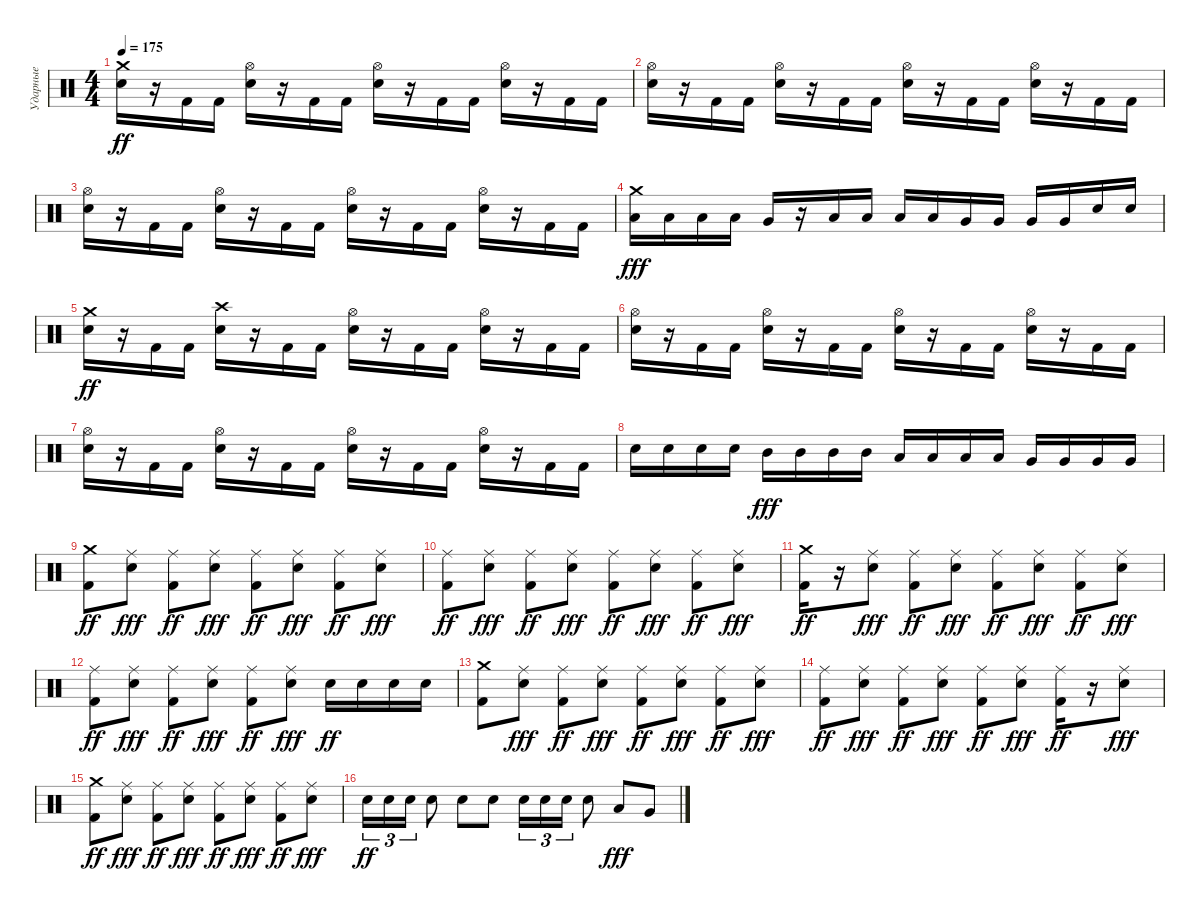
\track ("Ударные" "Ударные") {instrument percussion}
\staff {score}
\articulation defaults
\ts (4 4)
\tempo 175
\clef neutral
\ks c
("Electric Snare (hit)" "Crash medium (hit)").16{dy ff} r.16 "Kick (hit) 2".16 "Kick (hit) 2".16 ("Electric Snare (hit)" "Hi-Hat (open)").16 r.16 "Kick (hit) 2".16 "Kick (hit) 2".16 ("Electric Snare (hit)" "Hi-Hat (open)").16 r.16 "Kick (hit) 2".16 "Kick (hit) 2".16 ("Electric Snare (hit)" "Hi-Hat (open)").16 r.16 "Kick (hit) 2".16 "Kick (hit) 2".16 |
("Electric Snare (hit)" "Hi-Hat (open)").16 r.16 "Kick (hit) 2".16 "Kick (hit) 2".16 ("Electric Snare (hit)" "Hi-Hat (open)").16 r.16 "Kick (hit) 2".16 "Kick (hit) 2".16 ("Electric Snare (hit)" "Hi-Hat (open)").16 r.16 "Kick (hit) 2".16 "Kick (hit) 2".16 ("Electric Snare (hit)" "Hi-Hat (open)").16 r.16 "Kick (hit) 2".16 "Kick (hit) 2".16 |
("Electric Snare (hit)" "Hi-Hat (open)").16 r.16 "Kick (hit) 2".16 "Kick (hit) 2".16 ("Electric Snare (hit)" "Hi-Hat (open)").16 r.16 "Kick (hit) 2".16 "Kick (hit) 2".16 ("Electric Snare (hit)" "Hi-Hat (open)").16 r.16 "Kick (hit) 2".16 "Kick (hit) 2".16 ("Electric Snare (hit)" "Hi-Hat (open)").16 r.16 "Kick (hit) 2".16 "Kick (hit) 2".16 |
("Low Tom (hit)" "Crash medium (hit)").16{dy fff} "Low Tom (hit)".16 "Low Tom (hit)".16 "Low Tom (hit)".16 "Very Low Tom (hit)".16 r.16 "Low Tom (hit)".16 "Low Tom (hit)".16 "Low Tom (hit)".16 "Low Tom (hit)".16 "Very Low Tom (hit)".16 "Very Low Tom (hit)".16 "Very Low Tom (hit)".16 "Very Low Tom (hit)".16 "Electric Snare (hit)".16 "Electric Snare (hit)".16 |
("Electric Snare (hit)" "Crash medium (hit)").16{dy ff} r.16 "Kick (hit) 2".16 "Kick (hit) 2".16 ("Electric Snare (hit)" "Crash high (hit)").16 r.16 "Kick (hit) 2".16 "Kick (hit) 2".16 ("Electric Snare (hit)" "Hi-Hat (open)").16 r.16 "Kick (hit) 2".16 "Kick (hit) 2".16 ("Electric Snare (hit)" "Hi-Hat (open)").16 r.16 "Kick (hit) 2".16 "Kick (hit) 2".16 |
("Electric Snare (hit)" "Hi-Hat (open)").16 r.16 "Kick (hit) 2".16 "Kick (hit) 2".16 ("Electric Snare (hit)" "Hi-Hat (open)").16 r.16 "Kick (hit) 2".16 "Kick (hit) 2".16 ("Electric Snare (hit)" "Hi-Hat (open)").16 r.16 "Kick (hit) 2".16 "Kick (hit) 2".16 ("Electric Snare (hit)" "Hi-Hat (open)").16 r.16 "Kick (hit) 2".16 "Kick (hit) 2".16 |
("Electric Snare (hit)" "Hi-Hat (open)").16 r.16 "Kick (hit) 2".16 "Kick (hit) 2".16 ("Electric Snare (hit)" "Hi-Hat (open)").16 r.16 "Kick (hit) 2".16 "Kick (hit) 2".16 ("Electric Snare (hit)" "Hi-Hat (open)").16 r.16 "Kick (hit) 2".16 "Kick (hit) 2".16 ("Electric Snare (hit)" "Hi-Hat (open)").16 r.16 "Kick (hit) 2".16 "Kick (hit) 2".16 |
"Electric Snare (hit)".16 "Electric Snare (hit)".16 "Electric Snare (hit)".16 "Electric Snare (hit)".16 "Mid Tom (hit)".16{dy fff} "Mid Tom (hit)".16 "Mid Tom (hit)".16 "Mid Tom (hit)".16 "Low Tom (hit)".16 "Low Tom (hit)".16 "Low Tom (hit)".16 "Low Tom (hit)".16 "Very Low Tom (hit)".16 "Very Low Tom (hit)".16 "Very Low Tom (hit)".16 "Very Low Tom (hit)".16 |
("Kick (hit) 2" "Crash medium (hit)").8{dy ff} ("Electric Snare (hit)" "Ride (middle)").8{dy fff} ("Kick (hit) 2" "Ride (middle)").8{dy ff} ("Electric Snare (hit)" "Ride (middle)").8{dy fff} ("Kick (hit) 2" "Ride (middle)").8{dy ff} ("Electric Snare (hit)" "Ride (middle)").8{dy fff} ("Kick (hit) 2" "Ride (middle)").8{dy ff} ("Electric Snare (hit)" "Ride (middle)").8{dy fff} |
("Kick (hit) 2" "Ride (middle)").8{dy ff} ("Electric Snare (hit)" "Ride (middle)").8{dy fff} ("Kick (hit) 2" "Ride (middle)").8{dy ff} ("Electric Snare (hit)" "Ride (middle)").8{dy fff} ("Kick (hit) 2" "Ride (middle)").8{dy ff} ("Electric Snare (hit)" "Ride (middle)").8{dy fff} ("Kick (hit) 2" "Ride (middle)").8{dy ff} ("Electric Snare (hit)" "Ride (middle)").8{dy fff} |
("Kick (hit) 2" "Crash medium (hit)").16{dy ff} r.16 ("Electric Snare (hit)" "Ride (middle)").8{dy fff} ("Kick (hit) 2" "Ride (middle)").8{dy ff} ("Electric Snare (hit)" "Ride (middle)").8{dy fff} ("Kick (hit) 2" "Ride (middle)").8{dy ff} ("Electric Snare (hit)" "Ride (middle)").8{dy fff} ("Kick (hit) 2" "Ride (middle)").8{dy ff} ("Electric Snare (hit)" "Ride (middle)").8{dy fff} |
("Kick (hit) 2" "Ride (middle)").8{dy ff} ("Electric Snare (hit)" "Ride (middle)").8{dy fff} ("Kick (hit) 2" "Ride (middle)").8{dy ff} ("Electric Snare (hit)" "Ride (middle)").8{dy fff} ("Kick (hit) 2" "Ride (middle)").8{dy ff} ("Electric Snare (hit)" "Ride (middle)").8{dy fff} "Electric Snare (hit)".16{dy ff} "Electric Snare (hit)".16 "Electric Snare (hit)".16 "Electric Snare (hit)".16 |
("Kick (hit) 2" "Crash medium (hit)").8 ("Electric Snare (hit)" "Ride (middle)").8{dy fff} ("Kick (hit) 2" "Ride (middle)").8{dy ff} ("Electric Snare (hit)" "Ride (middle)").8{dy fff} ("Kick (hit) 2" "Ride (middle)").8{dy ff} ("Electric Snare (hit)" "Ride (middle)").8{dy fff} ("Kick (hit) 2" "Ride (middle)").8{dy ff} ("Electric Snare (hit)" "Ride (middle)").8{dy fff} |
("Kick (hit) 2" "Ride (middle)").8{dy ff} ("Electric Snare (hit)" "Ride (middle)").8{dy fff} ("Kick (hit) 2" "Ride (middle)").8{dy ff} ("Electric Snare (hit)" "Ride (middle)").8{dy fff} ("Kick (hit) 2" "Ride (middle)").8{dy ff} ("Electric Snare (hit)" "Ride (middle)").8{dy fff} ("Kick (hit) 2" "Ride (middle)").16{dy ff} r.16 ("Electric Snare (hit)" "Ride (middle)").8{dy fff} |
("Kick (hit) 2" "Crash medium (hit)").8{dy ff} ("Electric Snare (hit)" "Ride (middle)").8{dy fff} ("Kick (hit) 2" "Ride (middle)").8{dy ff} ("Electric Snare (hit)" "Ride (middle)").8{dy fff} ("Kick (hit) 2" "Ride (middle)").8{dy ff} ("Electric Snare (hit)" "Ride (middle)").8{dy fff} ("Kick (hit) 2" "Ride (middle)").8{dy ff} ("Electric Snare (hit)" "Ride (middle)").8{dy fff} |
"Electric Snare (hit)".16{tu (3 2) dy ff} "Electric Snare (hit)".16{tu (3 2)} "Electric Snare (hit)".16{tu (3 2)} "Electric Snare (hit)".8 "Electric Snare (hit)".8 "Electric Snare (hit)".8 "Electric Snare (hit)".16{tu (3 2)} "Electric Snare (hit)".16{tu (3 2)} "Electric Snare (hit)".16{tu (3 2)} "Electric Snare (hit)".8 "Low Tom (hit)".8{dy fff} "Very Low Tom (hit)".8
